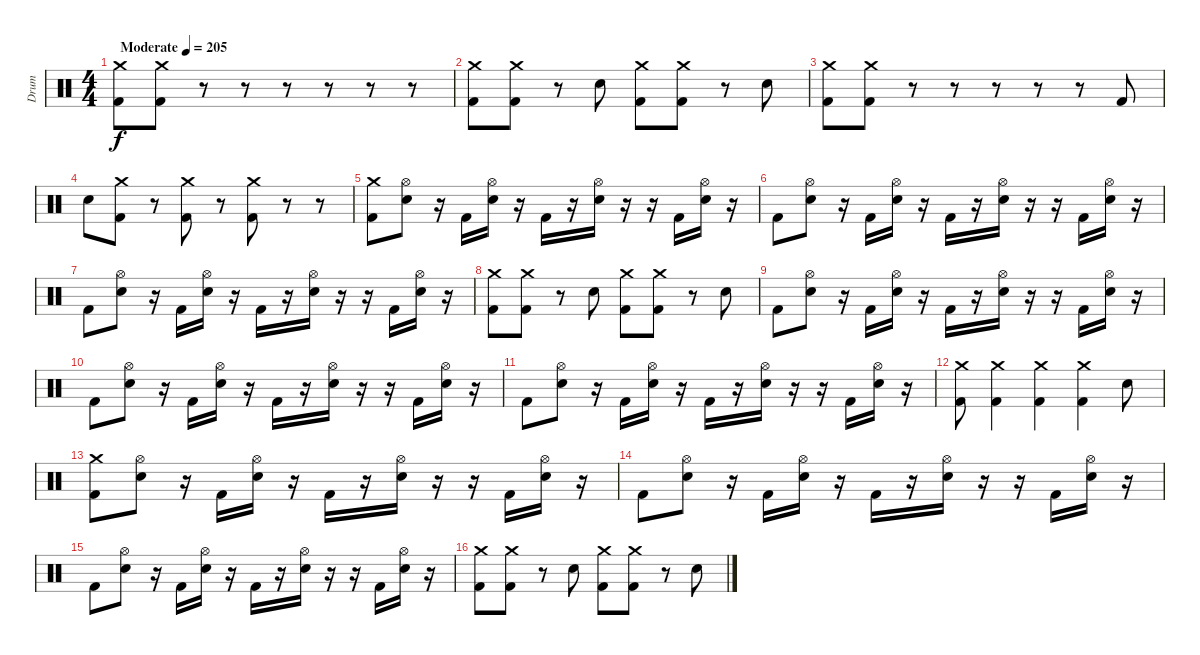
\track ("Drum" "Drum") {instrument percussion}
\staff {score}
\articulation defaults
\ts (4 4)
\tempo (205 "Moderate")
\clef neutral
\ks c
("Crash medium (hit)" "Kick (hit) 2").8{dy f} ("Crash medium (hit)" "Kick (hit) 2").8 r.8 r.8 r.8 r.8 r.8 r.8 |
("Crash medium (hit)" "Kick (hit) 2").8 ("Crash medium (hit)" "Kick (hit) 2").8 r.8 "Electric Snare (hit)".8 ("Crash medium (hit)" "Kick (hit) 2").8 ("Crash medium (hit)" "Kick (hit) 2").8 r.8 "Electric Snare (hit)".8 |
("Crash medium (hit)" "Kick (hit) 2").8 ("Crash medium (hit)" "Kick (hit) 2").8 r.8 r.8 r.8 r.8 r.8 "Kick (hit) 2".8 |
"Electric Snare (hit)".8 ("Crash medium (hit)" "Kick (hit) 2").8 r.8 ("Crash medium (hit)" "Kick (hit) 2").8 r.8 ("Crash medium (hit)" "Kick (hit) 2").8 r.8 r.8 |
("Crash medium (hit)" "Kick (hit) 2").8 ("Hi-Hat (open)" "Electric Snare (hit)").8 r.16 "Kick (hit) 2".16 ("Hi-Hat (open)" "Electric Snare (hit)").16 r.16 "Kick (hit) 2".16 r.16 ("Hi-Hat (open)" "Electric Snare (hit)").16 r.16 r.16 "Kick (hit) 2".16 ("Hi-Hat (open)" "Electric Snare (hit)").16 r.16 |
"Kick (hit) 2".8 ("Hi-Hat (open)" "Electric Snare (hit)").8 r.16 "Kick (hit) 2".16 ("Hi-Hat (open)" "Electric Snare (hit)").16 r.16 "Kick (hit) 2".16 r.16 ("Hi-Hat (open)" "Electric Snare (hit)").16 r.16 r.16 "Kick (hit) 2".16 ("Hi-Hat (open)" "Electric Snare (hit)").16 r.16 |
"Kick (hit) 2".8 ("Hi-Hat (open)" "Electric Snare (hit)").8 r.16 "Kick (hit) 2".16 ("Hi-Hat (open)" "Electric Snare (hit)").16 r.16 "Kick (hit) 2".16 r.16 ("Hi-Hat (open)" "Electric Snare (hit)").16 r.16 r.16 "Kick (hit) 2".16 ("Hi-Hat (open)" "Electric Snare (hit)").16 r.16 |
("Crash medium (hit)" "Kick (hit) 2").8 ("Crash medium (hit)" "Kick (hit) 2").8 r.8 "Electric Snare (hit)".8 ("Crash medium (hit)" "Kick (hit) 2").8 ("Crash medium (hit)" "Kick (hit) 2").8 r.8 "Electric Snare (hit)".8 |
"Kick (hit) 2".8 ("Hi-Hat (open)" "Electric Snare (hit)").8 r.16 "Kick (hit) 2".16 ("Hi-Hat (open)" "Electric Snare (hit)").16 r.16 "Kick (hit) 2".16 r.16 ("Hi-Hat (open)" "Electric Snare (hit)").16 r.16 r.16 "Kick (hit) 2".16 ("Hi-Hat (open)" "Electric Snare (hit)").16 r.16 |
"Kick (hit) 2".8 ("Hi-Hat (open)" "Electric Snare (hit)").8 r.16 "Kick (hit) 2".16 ("Hi-Hat (open)" "Electric Snare (hit)").16 r.16 "Kick (hit) 2".16 r.16 ("Hi-Hat (open)" "Electric Snare (hit)").16 r.16 r.16 "Kick (hit) 2".16 ("Hi-Hat (open)" "Electric Snare (hit)").16 r.16 |
"Kick (hit) 2".8 ("Hi-Hat (open)" "Electric Snare (hit)").8 r.16 "Kick (hit) 2".16 ("Hi-Hat (open)" "Electric Snare (hit)").16 r.16 "Kick (hit) 2".16 r.16 ("Hi-Hat (open)" "Electric Snare (hit)").16 r.16 r.16 "Kick (hit) 2".16 ("Hi-Hat (open)" "Electric Snare (hit)").16 r.16 |
("Crash medium (hit)" "Kick (hit) 2").8 ("Crash medium (hit)" "Kick (hit) 2").4 ("Crash medium (hit)" "Kick (hit) 2").4 ("Crash medium (hit)" "Kick (hit) 2").4 "Electric Snare (hit)".8 |
("Crash medium (hit)" "Kick (hit) 2").8 ("Hi-Hat (open)" "Electric Snare (hit)").8 r.16 "Kick (hit) 2".16 ("Hi-Hat (open)" "Electric Snare (hit)").16 r.16 "Kick (hit) 2".16 r.16 ("Hi-Hat (open)" "Electric Snare (hit)").16 r.16 r.16 "Kick (hit) 2".16 ("Hi-Hat (open)" "Electric Snare (hit)").16 r.16 |
"Kick (hit) 2".8 ("Hi-Hat (open)" "Electric Snare (hit)").8 r.16 "Kick (hit) 2".16 ("Hi-Hat (open)" "Electric Snare (hit)").16 r.16 "Kick (hit) 2".16 r.16 ("Hi-Hat (open)" "Electric Snare (hit)").16 r.16 r.16 "Kick (hit) 2".16 ("Hi-Hat (open)" "Electric Snare (hit)").16 r.16 |
"Kick (hit) 2".8 ("Hi-Hat (open)" "Electric Snare (hit)").8 r.16 "Kick (hit) 2".16 ("Hi-Hat (open)" "Electric Snare (hit)").16 r.16 "Kick (hit) 2".16 r.16 ("Hi-Hat (open)" "Electric Snare (hit)").16 r.16 r.16 "Kick (hit) 2".16 ("Hi-Hat (open)" "Electric Snare (hit)").16 r.16 |
("Crash medium (hit)" "Kick (hit) 2").8 ("Crash medium (hit)" "Kick (hit) 2").8 r.8 "Electric Snare (hit)".8 ("Crash medium (hit)" "Kick (hit) 2").8 ("Crash medium (hit)" "Kick (hit) 2").8 r.8 "Electric Snare (hit)".8
